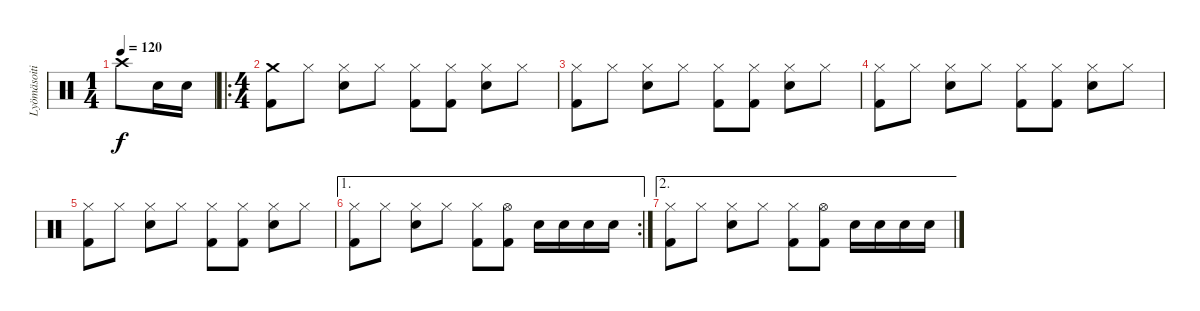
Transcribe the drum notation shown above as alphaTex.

\track ("Lyömäsoitin" "Lyömäsoiti") {instrument percussion}
\staff {score}
\articulation defaults
\ts (1 4)
\tempo 120
\clef neutral
\ks c "Crash high (hit)".8{dy f} "Electric Snare (hit)".16 "Electric Snare (hit)".16
|
\ro
\ts (4 4)
("Crash medium (hit)" "Kick (hit) 2").8 "Hi-Hat (closed)".8 ("Hi-Hat (closed)" "Electric Snare (hit)").8 "Hi-Hat (closed)".8 ("Hi-Hat (closed)" "Kick (hit) 2").8 ("Hi-Hat (closed)" "Kick (hit) 2").8 ("Hi-Hat (closed)" "Electric Snare (hit)").8 "Hi-Hat (closed)".8 |
("Hi-Hat (closed)" "Kick (hit) 2").8 "Hi-Hat (closed)".8 ("Hi-Hat (closed)" "Electric Snare (hit)").8 "Hi-Hat (closed)".8 ("Hi-Hat (closed)" "Kick (hit) 2").8 ("Hi-Hat (closed)" "Kick (hit) 2").8 ("Hi-Hat (closed)" "Electric Snare (hit)").8 "Hi-Hat (closed)".8 |
("Hi-Hat (closed)" "Kick (hit) 2").8 "Hi-Hat (closed)".8 ("Hi-Hat (closed)" "Electric Snare (hit)").8 "Hi-Hat (closed)".8 ("Hi-Hat (closed)" "Kick (hit) 2").8 ("Hi-Hat (closed)" "Kick (hit) 2").8 ("Hi-Hat (closed)" "Electric Snare (hit)").8 "Hi-Hat (closed)".8 |
("Hi-Hat (closed)" "Kick (hit) 2").8 "Hi-Hat (closed)".8 ("Hi-Hat (closed)" "Electric Snare (hit)").8 "Hi-Hat (closed)".8 ("Hi-Hat (closed)" "Kick (hit) 2").8 ("Hi-Hat (closed)" "Kick (hit) 2").8 ("Hi-Hat (closed)" "Electric Snare (hit)").8 "Hi-Hat (closed)".8 |
\ae 1
\rc 2
("Hi-Hat (closed)" "Kick (hit) 2").8 "Hi-Hat (closed)".8 ("Hi-Hat (closed)" "Electric Snare (hit)").8 "Hi-Hat (closed)".8 ("Hi-Hat (closed)" "Kick (hit) 2").8 ("Hi-Hat (open)" "Kick (hit) 2").8 "Electric Snare (hit)".16 "Electric Snare (hit)".16 "Electric Snare (hit)".16 "Electric Snare (hit)".16 |
\ae 2
("Hi-Hat (closed)" "Kick (hit) 2").8 "Hi-Hat (closed)".8 ("Hi-Hat (closed)" "Electric Snare (hit)").8 "Hi-Hat (closed)".8 ("Hi-Hat (closed)" "Kick (hit) 2").8 ("Hi-Hat (open)" "Kick (hit) 2").8 "Electric Snare (hit)".16 "Electric Snare (hit)".16 "Electric Snare (hit)".16 "Electric Snare (hit)".16
